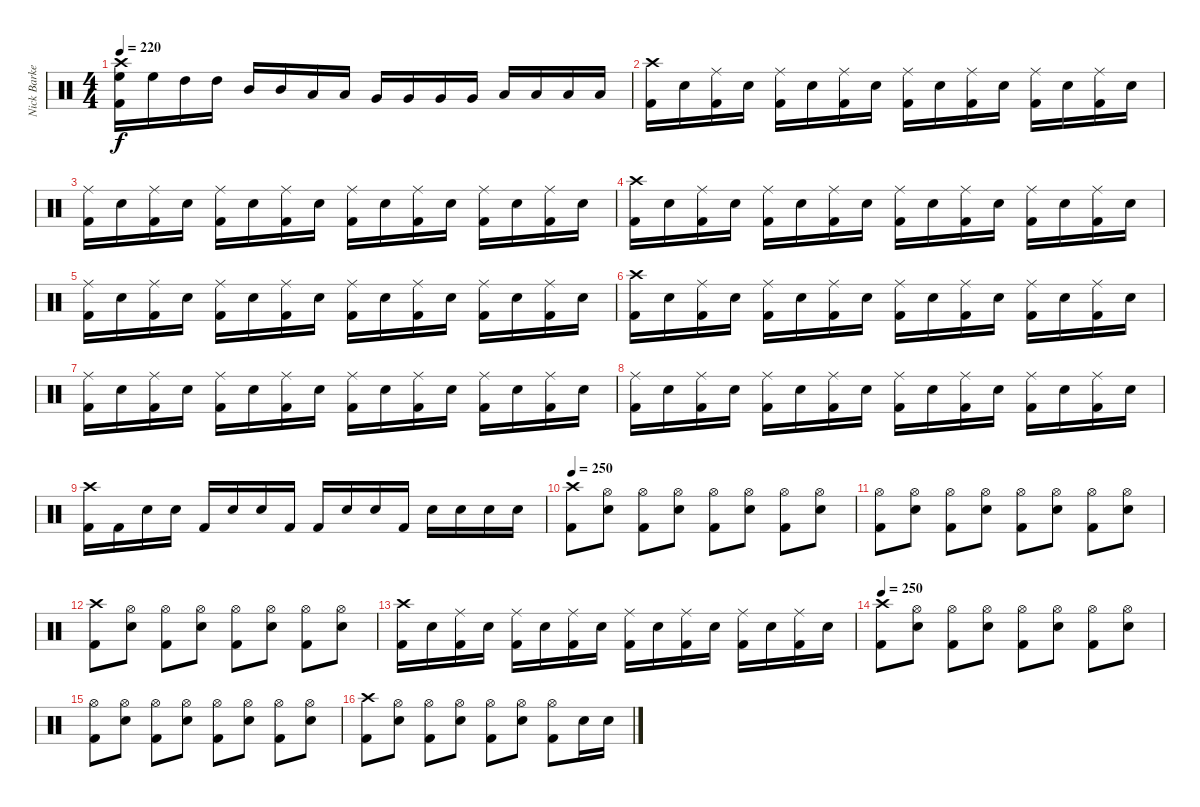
\track ("Nick Barker" "Nick Barke") {instrument percussion}
\staff {score}
\articulation defaults
\ts (4 4)
\tempo 220
\clef neutral
\ks c
("Crash high (hit)" "High Floor Tom (hit)" "Kick (hit) 2").16{dy f} "High Floor Tom (hit)".16 "High Tom (hit)".16 "High Tom (hit)".16 "Mid Tom (hit)".16 "Mid Tom (hit)".16 "Low Tom (hit)".16 "Low Tom (hit)".16 "Very Low Tom (hit)".16 "Very Low Tom (hit)".16 "Very Low Tom (hit)".16 "Very Low Tom (hit)".16 "Low Floor Tom (hit)".16 "Low Floor Tom (hit)".16 "Low Floor Tom (hit)".16 "Low Floor Tom (hit)".16 |
("Crash high (hit)" "Kick (hit) 2").16 "Electric Snare (hit)".16 ("Ride (middle)" "Kick (hit) 2").16 "Electric Snare (hit)".16 ("Ride (middle)" "Kick (hit) 2").16 "Electric Snare (hit)".16 ("Ride (middle)" "Kick (hit) 2").16 "Electric Snare (hit)".16 ("Ride (middle)" "Kick (hit) 2").16 "Electric Snare (hit)".16 ("Ride (middle)" "Kick (hit) 2").16 "Electric Snare (hit)".16 ("Ride (middle)" "Kick (hit) 2").16 "Electric Snare (hit)".16 ("Ride (middle)" "Kick (hit) 2").16 "Electric Snare (hit)".16 |
("Ride (middle)" "Kick (hit) 2").16 "Electric Snare (hit)".16 ("Ride (middle)" "Kick (hit) 2").16 "Electric Snare (hit)".16 ("Ride (middle)" "Kick (hit) 2").16 "Electric Snare (hit)".16 ("Ride (middle)" "Kick (hit) 2").16 "Electric Snare (hit)".16 ("Ride (middle)" "Kick (hit) 2").16 "Electric Snare (hit)".16 ("Ride (middle)" "Kick (hit) 2").16 "Electric Snare (hit)".16 ("Ride (middle)" "Kick (hit) 2").16 "Electric Snare (hit)".16 ("Ride (middle)" "Kick (hit) 2").16 "Electric Snare (hit)".16 |
("Crash high (hit)" "Kick (hit) 2").16 "Electric Snare (hit)".16 ("Ride (middle)" "Kick (hit) 2").16 "Electric Snare (hit)".16 ("Ride (middle)" "Kick (hit) 2").16 "Electric Snare (hit)".16 ("Ride (middle)" "Kick (hit) 2").16 "Electric Snare (hit)".16 ("Ride (middle)" "Kick (hit) 2").16 "Electric Snare (hit)".16 ("Ride (middle)" "Kick (hit) 2").16 "Electric Snare (hit)".16 ("Ride (middle)" "Kick (hit) 2").16 "Electric Snare (hit)".16 ("Ride (middle)" "Kick (hit) 2").16 "Electric Snare (hit)".16 |
("Ride (middle)" "Kick (hit) 2").16 "Electric Snare (hit)".16 ("Ride (middle)" "Kick (hit) 2").16 "Electric Snare (hit)".16 ("Ride (middle)" "Kick (hit) 2").16 "Electric Snare (hit)".16 ("Ride (middle)" "Kick (hit) 2").16 "Electric Snare (hit)".16 ("Ride (middle)" "Kick (hit) 2").16 "Electric Snare (hit)".16 ("Ride (middle)" "Kick (hit) 2").16 "Electric Snare (hit)".16 ("Ride (middle)" "Kick (hit) 2").16 "Electric Snare (hit)".16 ("Ride (middle)" "Kick (hit) 2").16 "Electric Snare (hit)".16 |
("Crash high (hit)" "Kick (hit) 2").16 "Electric Snare (hit)".16 ("Ride (middle)" "Kick (hit) 2").16 "Electric Snare (hit)".16 ("Ride (middle)" "Kick (hit) 2").16 "Electric Snare (hit)".16 ("Ride (middle)" "Kick (hit) 2").16 "Electric Snare (hit)".16 ("Ride (middle)" "Kick (hit) 2").16 "Electric Snare (hit)".16 ("Ride (middle)" "Kick (hit) 2").16 "Electric Snare (hit)".16 ("Ride (middle)" "Kick (hit) 2").16 "Electric Snare (hit)".16 ("Ride (middle)" "Kick (hit) 2").16 "Electric Snare (hit)".16 |
("Ride (middle)" "Kick (hit) 2").16 "Electric Snare (hit)".16 ("Ride (middle)" "Kick (hit) 2").16 "Electric Snare (hit)".16 ("Ride (middle)" "Kick (hit) 2").16 "Electric Snare (hit)".16 ("Ride (middle)" "Kick (hit) 2").16 "Electric Snare (hit)".16 ("Ride (middle)" "Kick (hit) 2").16 "Electric Snare (hit)".16 ("Ride (middle)" "Kick (hit) 2").16 "Electric Snare (hit)".16 ("Ride (middle)" "Kick (hit) 2").16 "Electric Snare (hit)".16 ("Ride (middle)" "Kick (hit) 2").16 "Electric Snare (hit)".16 |
("Ride (middle)" "Kick (hit) 2").16 "Electric Snare (hit)".16 ("Ride (middle)" "Kick (hit) 2").16 "Electric Snare (hit)".16 ("Ride (middle)" "Kick (hit) 2").16 "Electric Snare (hit)".16 ("Ride (middle)" "Kick (hit) 2").16 "Electric Snare (hit)".16 ("Ride (middle)" "Kick (hit) 2").16 "Electric Snare (hit)".16 ("Ride (middle)" "Kick (hit) 2").16 "Electric Snare (hit)".16 ("Ride (middle)" "Kick (hit) 2").16 "Electric Snare (hit)".16 ("Ride (middle)" "Kick (hit) 2").16 "Electric Snare (hit)".16 |
("Crash high (hit)" "Kick (hit) 2").16 "Kick (hit) 2".16 "Electric Snare (hit)".16 "Electric Snare (hit)".16 "Kick (hit) 2".16 "Electric Snare (hit)".16 "Electric Snare (hit)".16 "Kick (hit) 2".16 "Kick (hit) 2".16 "Electric Snare (hit)".16 "Electric Snare (hit)".16 "Kick (hit) 2".16 "Electric Snare (hit)".16 "Electric Snare (hit)".16 "Electric Snare (hit)".16 "Electric Snare (hit)".16 |
\section ("" "")
\tempo 250
("Crash high (hit)" "Kick (hit) 2").8 ("Hi-Hat (open)" "Electric Snare (hit)").8 ("Hi-Hat (open)" "Kick (hit) 2").8 ("Hi-Hat (open)" "Electric Snare (hit)").8 ("Hi-Hat (open)" "Kick (hit) 2").8 ("Hi-Hat (open)" "Electric Snare (hit)").8 ("Hi-Hat (open)" "Kick (hit) 2").8 ("Hi-Hat (open)" "Electric Snare (hit)").8 |
("Hi-Hat (open)" "Kick (hit) 2").8 ("Hi-Hat (open)" "Electric Snare (hit)").8 ("Hi-Hat (open)" "Kick (hit) 2").8 ("Hi-Hat (open)" "Electric Snare (hit)").8 ("Hi-Hat (open)" "Kick (hit) 2").8 ("Hi-Hat (open)" "Electric Snare (hit)").8 ("Hi-Hat (open)" "Kick (hit) 2").8 ("Hi-Hat (open)" "Electric Snare (hit)").8 |
("Crash high (hit)" "Kick (hit) 2").8 ("Hi-Hat (open)" "Electric Snare (hit)").8 ("Hi-Hat (open)" "Kick (hit) 2").8 ("Hi-Hat (open)" "Electric Snare (hit)").8 ("Hi-Hat (open)" "Kick (hit) 2").8 ("Hi-Hat (open)" "Electric Snare (hit)").8 ("Hi-Hat (open)" "Kick (hit) 2").8 ("Hi-Hat (open)" "Electric Snare (hit)").8 |
("Crash high (hit)" "Kick (hit) 2").16 "Electric Snare (hit)".16 ("Ride (middle)" "Kick (hit) 2").16 "Electric Snare (hit)".16 ("Ride (middle)" "Kick (hit) 2").16 "Electric Snare (hit)".16 ("Ride (middle)" "Kick (hit) 2").16 "Electric Snare (hit)".16 ("Ride (middle)" "Kick (hit) 2").16 "Electric Snare (hit)".16 ("Ride (middle)" "Kick (hit) 2").16 "Electric Snare (hit)".16 ("Ride (middle)" "Kick (hit) 2").16 "Electric Snare (hit)".16 ("Ride (middle)" "Kick (hit) 2").16 "Electric Snare (hit)".16 |
\tempo 250
("Crash high (hit)" "Kick (hit) 2").8 ("Hi-Hat (open)" "Electric Snare (hit)").8 ("Hi-Hat (open)" "Kick (hit) 2").8 ("Hi-Hat (open)" "Electric Snare (hit)").8 ("Hi-Hat (open)" "Kick (hit) 2").8 ("Hi-Hat (open)" "Electric Snare (hit)").8 ("Hi-Hat (open)" "Kick (hit) 2").8 ("Hi-Hat (open)" "Electric Snare (hit)").8 |
("Hi-Hat (open)" "Kick (hit) 2").8 ("Hi-Hat (open)" "Electric Snare (hit)").8 ("Hi-Hat (open)" "Kick (hit) 2").8 ("Hi-Hat (open)" "Electric Snare (hit)").8 ("Hi-Hat (open)" "Kick (hit) 2").8 ("Hi-Hat (open)" "Electric Snare (hit)").8 ("Hi-Hat (open)" "Kick (hit) 2").8 ("Hi-Hat (open)" "Electric Snare (hit)").8 |
("Crash high (hit)" "Kick (hit) 2").8 ("Hi-Hat (open)" "Electric Snare (hit)").8 ("Hi-Hat (open)" "Kick (hit) 2").8 ("Hi-Hat (open)" "Electric Snare (hit)").8 ("Hi-Hat (open)" "Kick (hit) 2").8 ("Hi-Hat (open)" "Electric Snare (hit)").8 ("Hi-Hat (open)" "Kick (hit) 2").8 "Electric Snare (hit)".16 "Electric Snare (hit)".16
